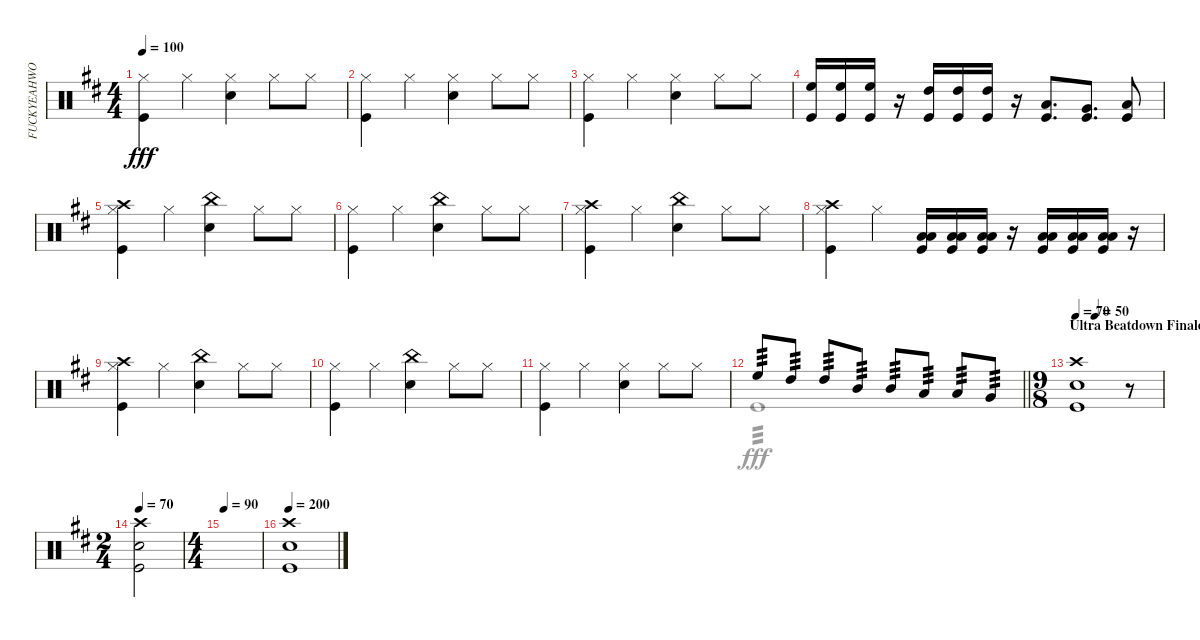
\track ("FUCKYEAHWOOTDAVEMACKINTOSH!(Percussion)" "FUCKYEAHWO") {instrument percussion}
\staff {score}
\articulation defaults
\voice
\ts (4 4)
\tempo 100
\clef neutral
\ks d
("Hi-Hat (closed)" "Kick (hit)").4{dy fff} "Hi-Hat (closed)".4 ("Snare (hit) 2" "Hi-Hat (closed)").4 "Hi-Hat (closed)".8 "Hi-Hat (closed)".8 |
("Hi-Hat (closed)" "Kick (hit)").4 "Hi-Hat (closed)".4 ("Hi-Hat (closed)" "Snare (hit) 2").4 "Hi-Hat (closed)".8 "Hi-Hat (closed)".8 |
("Hi-Hat (closed)" "Kick (hit)").4 "Hi-Hat (closed)".4 ("Hi-Hat (closed)" "Snare (hit) 2").4 "Hi-Hat (closed)".8 "Hi-Hat (closed)".8 |
("High Floor Tom (hit)" "Kick (hit)").16 ("High Floor Tom (hit)" "Kick (hit)").16 ("High Floor Tom (hit)" "Kick (hit)").16 r.16 ("High Tom (hit)" "Kick (hit)").16 ("High Tom (hit)" "Kick (hit)").16 ("High Tom (hit)" "Kick (hit)").16 r.16 ("Low Tom (hit)" "Kick (hit)").8{d} ("Very Low Tom (hit)" "Kick (hit)").8{d} ("Low Floor Tom (hit)" "Kick (hit)").8 |
("Hi-Hat (closed)" "Kick (hit)" "Crash high (hit)").4 "Hi-Hat (closed)".4 ("Snare (hit) 2" "China (hit)").4 "Hi-Hat (closed)".8 "Hi-Hat (closed)".8 |
("Hi-Hat (closed)" "Kick (hit)").4 "Hi-Hat (closed)".4 ("Snare (hit) 2" "China (hit)").4 "Hi-Hat (closed)".8 "Hi-Hat (closed)".8 |
("Hi-Hat (closed)" "Kick (hit)" "Crash high (hit)").4 "Hi-Hat (closed)".4 ("Snare (hit) 2" "China (hit)").4 "Hi-Hat (closed)".8 "Hi-Hat (closed)".8 |
("Hi-Hat (closed)" "Kick (hit)" "Crash high (hit)").4 "Hi-Hat (closed)".4 ("Low Floor Tom (hit)" "Kick (hit)" "Low Tom (hit)").16 ("Low Floor Tom (hit)" "Kick (hit)" "Low Tom (hit)").16 ("Low Floor Tom (hit)" "Kick (hit)" "Low Tom (hit)").16 r.16 ("Low Floor Tom (hit)" "Kick (hit)" "Low Tom (hit)").16 ("Low Floor Tom (hit)" "Kick (hit)" "Low Tom (hit)").16 ("Low Floor Tom (hit)" "Kick (hit)" "Low Tom (hit)").16 r.16 |
("Hi-Hat (closed)" "Kick (hit)" "Crash high (hit)").4 "Hi-Hat (closed)".4 ("Snare (hit) 2" "China (hit)").4 "Hi-Hat (closed)".8 "Hi-Hat (closed)".8 |
("Hi-Hat (closed)" "Kick (hit)").4 "Hi-Hat (closed)".4 ("Snare (hit) 2" "China (hit)").4 "Hi-Hat (closed)".8 "Hi-Hat (closed)".8 |
("Hi-Hat (closed)" "Kick (hit)").4 "Hi-Hat (closed)".4 ("Hi-Hat (closed)" "Snare (hit) 2").4 "Hi-Hat (closed)".8 "Hi-Hat (closed)".8 |
\barLineRight lightlight "High Floor Tom (hit)".8{tp 3} "High Tom (hit)".8{tp 3} "High Tom (hit)".8{tp 3} "Mid Tom (hit)".8{tp 3} "Mid Tom (hit)".8{tp 3} "Low Tom (hit)".8{tp 3} "Low Tom (hit)".8{tp 3} "Very Low Tom (hit)".8{tp 3}
|
\ts (9 8)
\section ("" "Ultra Beatdown Finale")
\tempo 70
\tempo (50 0.2222222222222222)
("Kick (hit)" "Snare (hit) 2" "Crash high (hit)").1 r.8 |
\ts (2 4)
\tempo 70
("Kick (hit)" "Snare (hit) 2" "Crash high (hit)").2 |
\ts (4 4)
\tempo 90
|
\tempo 200
("Kick (hit)" "Snare (hit) 2" "Crash high (hit)").1
\voice
\clef neutral
\ottava regular
\simile none
\ks d
|
|
|
|
|
|
|
|
|
|
|
\barLineRight lightlight "Kick (hit)".1{tp 3 dy fff}
|
|
|
|
